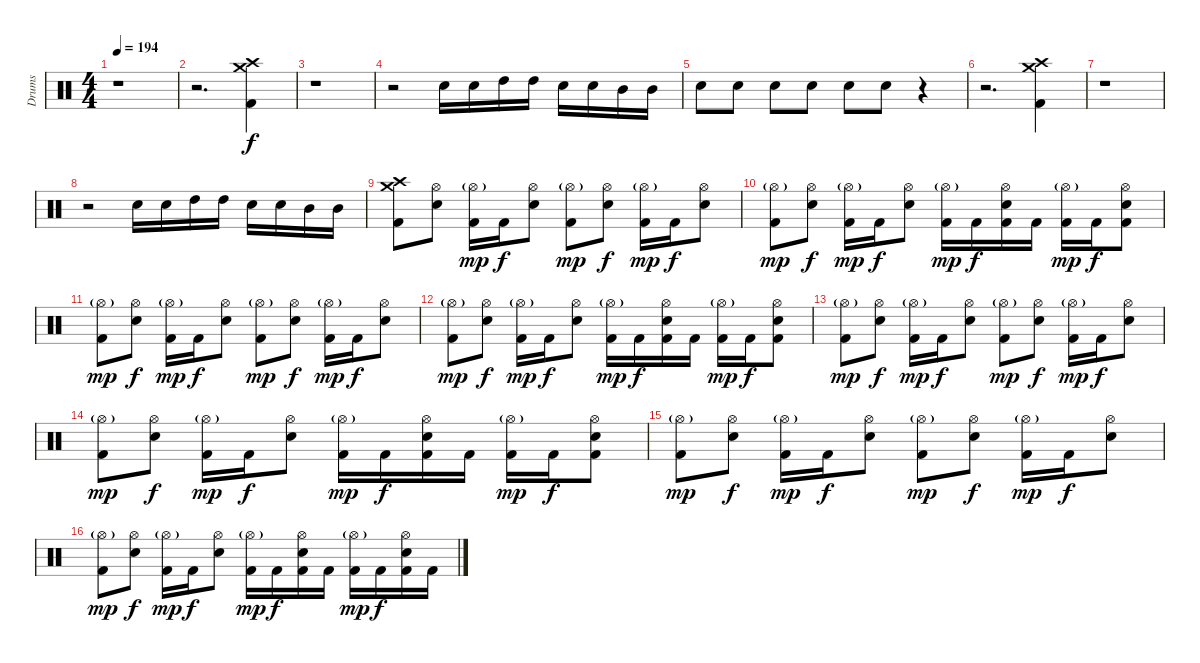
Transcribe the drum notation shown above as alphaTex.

\track ("Drums" "Drums") {instrument percussion}
\staff {score}
\articulation defaults
\ts (4 4)
\tempo 194
\clef neutral
\ks c
r.1{dy f} |
r.2{d} ("Crash high (hit)" "Crash medium (hit)" "Kick (hit) 2").4 |
r.1 |
r.2 "Electric Snare (hit)".16 "Electric Snare (hit)".16 "High Tom (hit)".16 "High Tom (hit)".16 "Electric Snare (hit)".16 "Electric Snare (hit)".16 "Mid Tom (hit)".16 "Mid Tom (hit)".16 |
"Electric Snare (hit)".8 "Electric Snare (hit)".8 "Electric Snare (hit)".8 "Electric Snare (hit)".8 "Electric Snare (hit)".8 "Electric Snare (hit)".8 r.4 |
r.2{d} ("Crash high (hit)" "Crash medium (hit)" "Kick (hit) 2").4 |
r.1 |
r.2 "Electric Snare (hit)".16 "Electric Snare (hit)".16 "High Tom (hit)".16 "High Tom (hit)".16 "Electric Snare (hit)".16 "Electric Snare (hit)".16 "Mid Tom (hit)".16 "Mid Tom (hit)".16 |
("Crash high (hit)" "Crash medium (hit)" "Kick (hit) 2").8 ("Hi-Hat (open)" "Electric Snare (hit)").8 ("Hi-Hat (open)"{g} "Kick (hit) 2").16{dy mp} "Kick (hit) 2".16{dy f} ("Hi-Hat (open)" "Electric Snare (hit)").8 ("Hi-Hat (open)"{g} "Kick (hit) 2").8{dy mp} ("Hi-Hat (open)" "Electric Snare (hit)").8{dy f} ("Hi-Hat (open)"{g} "Kick (hit) 2").16{dy mp} "Kick (hit) 2".16{dy f} ("Hi-Hat (open)" "Electric Snare (hit)").8 |
("Hi-Hat (open)"{g} "Kick (hit) 2").8{dy mp} ("Hi-Hat (open)" "Electric Snare (hit)").8{dy f} ("Hi-Hat (open)"{g} "Kick (hit) 2").16{dy mp} "Kick (hit) 2".16{dy f} ("Hi-Hat (open)" "Electric Snare (hit)").8 ("Hi-Hat (open)"{g} "Kick (hit) 2").16{dy mp} "Kick (hit) 2".16{dy f} ("Hi-Hat (open)" "Electric Snare (hit)" "Kick (hit) 2").16 "Kick (hit) 2".16 ("Hi-Hat (open)"{g} "Kick (hit) 2").16{dy mp} "Kick (hit) 2".16{dy f} ("Hi-Hat (open)" "Electric Snare (hit)" "Kick (hit) 2").8 |
("Hi-Hat (open)"{g} "Kick (hit) 2").8{dy mp} ("Hi-Hat (open)" "Electric Snare (hit)").8{dy f} ("Hi-Hat (open)"{g} "Kick (hit) 2").16{dy mp} "Kick (hit) 2".16{dy f} ("Hi-Hat (open)" "Electric Snare (hit)").8 ("Hi-Hat (open)"{g} "Kick (hit) 2").8{dy mp} ("Hi-Hat (open)" "Electric Snare (hit)").8{dy f} ("Hi-Hat (open)"{g} "Kick (hit) 2").16{dy mp} "Kick (hit) 2".16{dy f} ("Hi-Hat (open)" "Electric Snare (hit)").8 |
("Hi-Hat (open)"{g} "Kick (hit) 2").8{dy mp} ("Hi-Hat (open)" "Electric Snare (hit)").8{dy f} ("Hi-Hat (open)"{g} "Kick (hit) 2").16{dy mp} "Kick (hit) 2".16{dy f} ("Hi-Hat (open)" "Electric Snare (hit)").8 ("Hi-Hat (open)"{g} "Kick (hit) 2").16{dy mp} "Kick (hit) 2".16{dy f} ("Hi-Hat (open)" "Electric Snare (hit)" "Kick (hit) 2").16 "Kick (hit) 2".16 ("Hi-Hat (open)"{g} "Kick (hit) 2").16{dy mp} "Kick (hit) 2".16{dy f} ("Hi-Hat (open)" "Electric Snare (hit)" "Kick (hit) 2").8 |
("Hi-Hat (open)"{g} "Kick (hit) 2").8{dy mp} ("Hi-Hat (open)" "Electric Snare (hit)").8{dy f} ("Hi-Hat (open)"{g} "Kick (hit) 2").16{dy mp} "Kick (hit) 2".16{dy f} ("Hi-Hat (open)" "Electric Snare (hit)").8 ("Hi-Hat (open)"{g} "Kick (hit) 2").8{dy mp} ("Hi-Hat (open)" "Electric Snare (hit)").8{dy f} ("Hi-Hat (open)"{g} "Kick (hit) 2").16{dy mp} "Kick (hit) 2".16{dy f} ("Hi-Hat (open)" "Electric Snare (hit)").8 |
("Hi-Hat (open)"{g} "Kick (hit) 2").8{dy mp} ("Hi-Hat (open)" "Electric Snare (hit)").8{dy f} ("Hi-Hat (open)"{g} "Kick (hit) 2").16{dy mp} "Kick (hit) 2".16{dy f} ("Hi-Hat (open)" "Electric Snare (hit)").8 ("Hi-Hat (open)"{g} "Kick (hit) 2").16{dy mp} "Kick (hit) 2".16{dy f} ("Hi-Hat (open)" "Electric Snare (hit)" "Kick (hit) 2").16 "Kick (hit) 2".16 ("Hi-Hat (open)"{g} "Kick (hit) 2").16{dy mp} "Kick (hit) 2".16{dy f} ("Hi-Hat (open)" "Electric Snare (hit)" "Kick (hit) 2").8 |
("Hi-Hat (open)"{g} "Kick (hit) 2").8{dy mp} ("Hi-Hat (open)" "Electric Snare (hit)").8{dy f} ("Hi-Hat (open)"{g} "Kick (hit) 2").16{dy mp} "Kick (hit) 2".16{dy f} ("Hi-Hat (open)" "Electric Snare (hit)").8 ("Hi-Hat (open)"{g} "Kick (hit) 2").8{dy mp} ("Hi-Hat (open)" "Electric Snare (hit)").8{dy f} ("Hi-Hat (open)"{g} "Kick (hit) 2").16{dy mp} "Kick (hit) 2".16{dy f} ("Hi-Hat (open)" "Electric Snare (hit)").8 |
("Hi-Hat (open)"{g} "Kick (hit) 2").8{dy mp} ("Hi-Hat (open)" "Electric Snare (hit)").8{dy f} ("Hi-Hat (open)"{g} "Kick (hit) 2").16{dy mp} "Kick (hit) 2".16{dy f} ("Hi-Hat (open)" "Electric Snare (hit)").8 ("Hi-Hat (open)"{g} "Kick (hit) 2").16{dy mp} "Kick (hit) 2".16{dy f} ("Hi-Hat (open)" "Electric Snare (hit)" "Kick (hit) 2").16 "Kick (hit) 2".16 ("Hi-Hat (open)"{g} "Kick (hit) 2").16{dy mp} "Kick (hit) 2".16{dy f} ("Hi-Hat (open)" "Electric Snare (hit)" "Kick (hit) 2").16 "Kick (hit) 2".16
